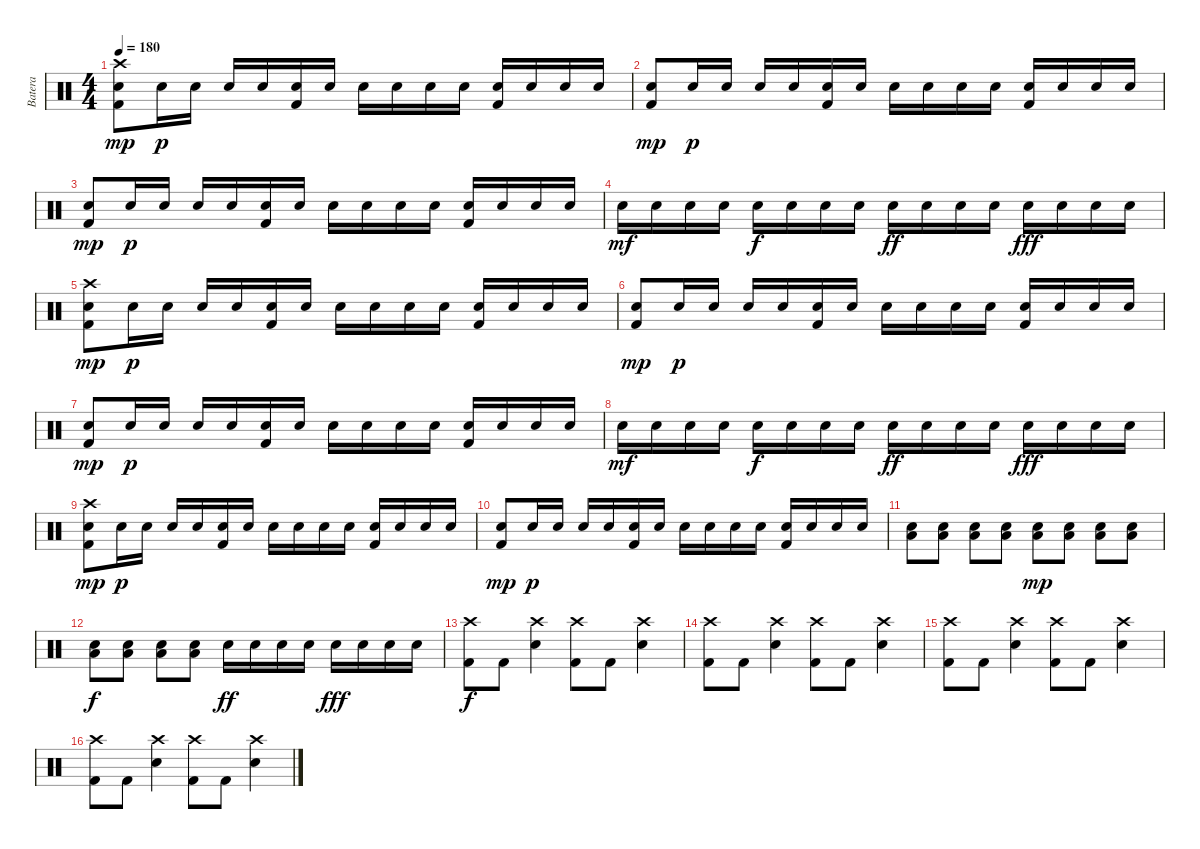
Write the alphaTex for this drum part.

\track ("Batera" "Batera") {instrument percussion}
\staff {score}
\articulation defaults
\ts (4 4)
\tempo 180
\clef neutral
\ks c
("Crash high (hit)" "Snare (hit) 2" "Kick (hit) 2").8{dy mp} "Snare (hit) 2".16{dy p} "Snare (hit) 2".16 "Snare (hit) 2".16 "Snare (hit) 2".16 ("Kick (hit) 2" "Snare (hit) 2").16 "Snare (hit) 2".16 "Snare (hit) 2".16 "Snare (hit) 2".16 "Snare (hit) 2".16 "Snare (hit) 2".16 ("Kick (hit) 2" "Snare (hit) 2").16 "Snare (hit) 2".16 "Snare (hit) 2".16 "Snare (hit) 2".16 |
("Snare (hit) 2" "Kick (hit) 2").8{dy mp} "Snare (hit) 2".16{dy p} "Snare (hit) 2".16 "Snare (hit) 2".16 "Snare (hit) 2".16 ("Kick (hit) 2" "Snare (hit) 2").16 "Snare (hit) 2".16 "Snare (hit) 2".16 "Snare (hit) 2".16 "Snare (hit) 2".16 "Snare (hit) 2".16 ("Kick (hit) 2" "Snare (hit) 2").16 "Snare (hit) 2".16 "Snare (hit) 2".16 "Snare (hit) 2".16 |
("Snare (hit) 2" "Kick (hit) 2").8{dy mp} "Snare (hit) 2".16{dy p} "Snare (hit) 2".16 "Snare (hit) 2".16 "Snare (hit) 2".16 ("Kick (hit) 2" "Snare (hit) 2").16 "Snare (hit) 2".16 "Snare (hit) 2".16 "Snare (hit) 2".16 "Snare (hit) 2".16 "Snare (hit) 2".16 ("Kick (hit) 2" "Snare (hit) 2").16 "Snare (hit) 2".16 "Snare (hit) 2".16 "Snare (hit) 2".16 |
"Snare (hit) 2".16{dy mf} "Snare (hit) 2".16 "Snare (hit) 2".16 "Snare (hit) 2".16 "Snare (hit) 2".16{dy f} "Snare (hit) 2".16 "Snare (hit) 2".16 "Snare (hit) 2".16 "Snare (hit) 2".16{dy ff} "Snare (hit) 2".16 "Snare (hit) 2".16 "Snare (hit) 2".16 "Snare (hit) 2".16{dy fff} "Snare (hit) 2".16 "Snare (hit) 2".16 "Snare (hit) 2".16 |
("Crash high (hit)" "Snare (hit) 2" "Kick (hit) 2").8{dy mp} "Snare (hit) 2".16{dy p} "Snare (hit) 2".16 "Snare (hit) 2".16 "Snare (hit) 2".16 ("Kick (hit) 2" "Snare (hit) 2").16 "Snare (hit) 2".16 "Snare (hit) 2".16 "Snare (hit) 2".16 "Snare (hit) 2".16 "Snare (hit) 2".16 ("Kick (hit) 2" "Snare (hit) 2").16 "Snare (hit) 2".16 "Snare (hit) 2".16 "Snare (hit) 2".16 |
("Snare (hit) 2" "Kick (hit) 2").8{dy mp} "Snare (hit) 2".16{dy p} "Snare (hit) 2".16 "Snare (hit) 2".16 "Snare (hit) 2".16 ("Kick (hit) 2" "Snare (hit) 2").16 "Snare (hit) 2".16 "Snare (hit) 2".16 "Snare (hit) 2".16 "Snare (hit) 2".16 "Snare (hit) 2".16 ("Kick (hit) 2" "Snare (hit) 2").16 "Snare (hit) 2".16 "Snare (hit) 2".16 "Snare (hit) 2".16 |
("Snare (hit) 2" "Kick (hit) 2").8{dy mp} "Snare (hit) 2".16{dy p} "Snare (hit) 2".16 "Snare (hit) 2".16 "Snare (hit) 2".16 ("Kick (hit) 2" "Snare (hit) 2").16 "Snare (hit) 2".16 "Snare (hit) 2".16 "Snare (hit) 2".16 "Snare (hit) 2".16 "Snare (hit) 2".16 ("Kick (hit) 2" "Snare (hit) 2").16 "Snare (hit) 2".16 "Snare (hit) 2".16 "Snare (hit) 2".16 |
"Snare (hit) 2".16{dy mf} "Snare (hit) 2".16 "Snare (hit) 2".16 "Snare (hit) 2".16 "Snare (hit) 2".16{dy f} "Snare (hit) 2".16 "Snare (hit) 2".16 "Snare (hit) 2".16 "Snare (hit) 2".16{dy ff} "Snare (hit) 2".16 "Snare (hit) 2".16 "Snare (hit) 2".16 "Snare (hit) 2".16{dy fff} "Snare (hit) 2".16 "Snare (hit) 2".16 "Snare (hit) 2".16 |
("Crash high (hit)" "Snare (hit) 2" "Kick (hit) 2").8{dy mp} "Snare (hit) 2".16{dy p} "Snare (hit) 2".16 "Snare (hit) 2".16 "Snare (hit) 2".16 ("Kick (hit) 2" "Snare (hit) 2").16 "Snare (hit) 2".16 "Snare (hit) 2".16 "Snare (hit) 2".16 "Snare (hit) 2".16 "Snare (hit) 2".16 ("Kick (hit) 2" "Snare (hit) 2").16 "Snare (hit) 2".16 "Snare (hit) 2".16 "Snare (hit) 2".16 |
("Snare (hit) 2" "Kick (hit) 2").8{dy mp} "Snare (hit) 2".16{dy p} "Snare (hit) 2".16 "Snare (hit) 2".16 "Snare (hit) 2".16 ("Kick (hit) 2" "Snare (hit) 2").16 "Snare (hit) 2".16 "Snare (hit) 2".16 "Snare (hit) 2".16 "Snare (hit) 2".16 "Snare (hit) 2".16 ("Kick (hit) 2" "Snare (hit) 2").16 "Snare (hit) 2".16 "Snare (hit) 2".16 "Snare (hit) 2".16 |
("Snare (hit) 2" "Low Tom (hit)").8 ("Snare (hit) 2" "Low Tom (hit)").8 ("Snare (hit) 2" "Low Tom (hit)").8 ("Snare (hit) 2" "Low Tom (hit)").8 ("Snare (hit) 2" "Low Tom (hit)").8{dy mp} ("Snare (hit) 2" "Low Tom (hit)").8 ("Snare (hit) 2" "Low Tom (hit)").8 ("Snare (hit) 2" "Low Tom (hit)").8 |
("Low Tom (hit)" "Snare (hit) 2").8{dy f} ("Low Tom (hit)" "Snare (hit) 2").8 ("Low Tom (hit)" "Snare (hit) 2").8 ("Low Tom (hit)" "Snare (hit) 2").8 "Snare (hit) 2".16{dy ff} "Snare (hit) 2".16 "Snare (hit) 2".16 "Snare (hit) 2".16 "Snare (hit) 2".16{dy fff} "Snare (hit) 2".16 "Snare (hit) 2".16 "Snare (hit) 2".16 |
("Crash high (hit)" "Kick (hit) 2").8{dy f} "Kick (hit) 2".8 ("Crash high (hit)" "Snare (hit) 2").4 ("Crash high (hit)" "Kick (hit) 2").8 "Kick (hit) 2".8 ("Crash high (hit)" "Snare (hit) 2").4 |
("Crash high (hit)" "Kick (hit) 2").8 "Kick (hit) 2".8 ("Crash high (hit)" "Snare (hit) 2").4 ("Crash high (hit)" "Kick (hit) 2").8 "Kick (hit) 2".8 ("Crash high (hit)" "Snare (hit) 2").4 |
("Crash high (hit)" "Kick (hit) 2").8 "Kick (hit) 2".8 ("Crash high (hit)" "Snare (hit) 2").4 ("Crash high (hit)" "Kick (hit) 2").8 "Kick (hit) 2".8 ("Crash high (hit)" "Snare (hit) 2").4 |
("Crash high (hit)" "Kick (hit) 2").8 "Kick (hit) 2".8 ("Crash high (hit)" "Snare (hit) 2").4 ("Crash high (hit)" "Kick (hit) 2").8 "Kick (hit) 2".8 ("Crash high (hit)" "Snare (hit) 2").4
